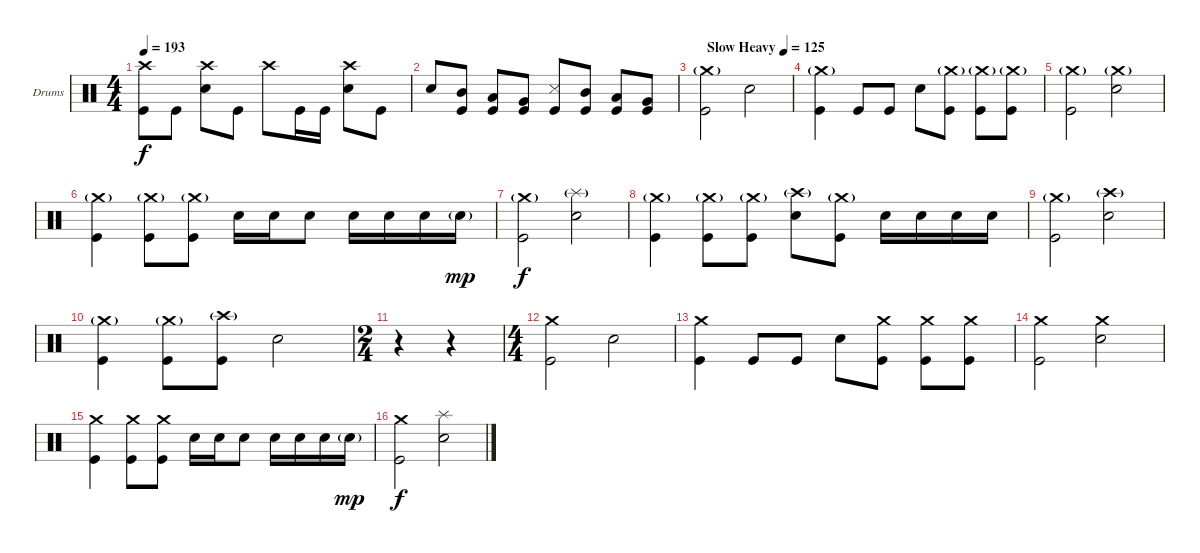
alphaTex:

\bracketExtendMode groupsimilarinstruments
\firstSystemTrackNameOrientation horizontal
\otherSystemsTrackNameOrientation horizontal
\track ("Drumkit" "Drums") {instrument percussion}
\staff {score}
\articulation defaults
\ts (4 4)
\tempo 193
\clef neutral
\ks c
("Crash high (hit)" "Kick (hit)").8{dy f} "Kick (hit)".8 ("Crash high (hit)" "Snare (hit) 2").8 "Kick (hit)".8 "Crash high (hit)".8 "Kick (hit)".16 "Kick (hit)".16 ("Crash high (hit)" "Snare (hit) 2").8 "Kick (hit)".8 |
"Snare (hit) 2".8 ("Mid Tom (hit)" "Kick (hit)").8 ("Low Tom (hit)" "Kick (hit)").8 ("Very Low Tom (hit)" "Kick (hit)").8 ("Snare (side stick) 3" "Kick (hit)").8 ("Mid Tom (hit)" "Kick (hit)").8 ("Low Tom (hit)" "Kick (hit)").8 ("Very Low Tom (hit)" "Kick (hit)").8 |
\tempo (125 "Slow Heavy")
("Crash medium (hit)"{g} "Kick (hit)").2 "Snare (hit) 2".2 |
("Crash medium (hit)"{g} "Kick (hit)").4 "Kick (hit)".8 "Kick (hit)".8 "Snare (hit) 2".8 ("Crash medium (hit)"{g} "Kick (hit)").8 ("Crash medium (hit)"{g} "Kick (hit)").8 ("Crash medium (hit)"{g} "Kick (hit)").8 |
("Crash medium (hit)"{g} "Kick (hit)").2 ("Crash medium (hit)"{g} "Snare (hit) 2").2 |
("Crash medium (hit)"{g} "Kick (hit)").4 ("Crash medium (hit)"{g} "Kick (hit)").8 ("Crash medium (hit)"{g} "Kick (hit)").8 "Snare (hit) 2".16 "Snare (hit) 2".16 "Snare (hit) 2".8 "Snare (hit) 2".16 "Snare (hit) 2".16 "Snare (hit) 2".16 "Snare (hit) 2"{g}.16{dy mp} |
("Crash medium (hit)"{g} "Kick (hit)").2{dy f} ("Splash (hit)"{g} "Snare (hit) 2").2 |
("Crash medium (hit)"{g} "Kick (hit)").4 ("Crash medium (hit)"{g} "Kick (hit)").8 ("Crash medium (hit)"{g} "Kick (hit)").8 ("Crash high (hit)"{g} "Snare (hit) 2").8 ("Crash medium (hit)"{g} "Kick (hit)").8 "Snare (hit) 2".16 "Snare (hit) 2".16 "Snare (hit) 2".16 "Snare (hit) 2".16 |
("Crash medium (hit)"{g} "Kick (hit)").2 ("Crash high (hit)"{g} "Snare (hit) 2").2 |
("Crash medium (hit)"{g} "Kick (hit)").4 ("Crash medium (hit)"{g} "Kick (hit)").8 ("Crash high (hit)"{g} "Kick (hit)").8 "Snare (hit) 2".2 |
\ts (2 4)
\beaming (8 2 2)
r.4 r.4 |
\ts (4 4)
\beaming (8 2 2 2 2)
("Crash medium (hit)" "Kick (hit)").2 "Snare (hit) 2".2 |
("Crash medium (hit)" "Kick (hit)").4 "Kick (hit)".8 "Kick (hit)".8 "Snare (hit) 2".8 ("Crash medium (hit)" "Kick (hit)").8 ("Crash medium (hit)" "Kick (hit)").8 ("Crash medium (hit)" "Kick (hit)").8 |
("Crash medium (hit)" "Kick (hit)").2 ("Crash medium (hit)" "Snare (hit) 2").2 |
("Crash medium (hit)" "Kick (hit)").4 ("Crash medium (hit)" "Kick (hit)").8 ("Crash medium (hit)" "Kick (hit)").8 "Snare (hit) 2".16 "Snare (hit) 2".16 "Snare (hit) 2".8 "Snare (hit) 2".16 "Snare (hit) 2".16 "Snare (hit) 2".16 "Snare (hit) 2"{g}.16{dy mp} |
("Crash medium (hit)" "Kick (hit)").2{dy f} ("Splash (hit)" "Snare (hit) 2").2
